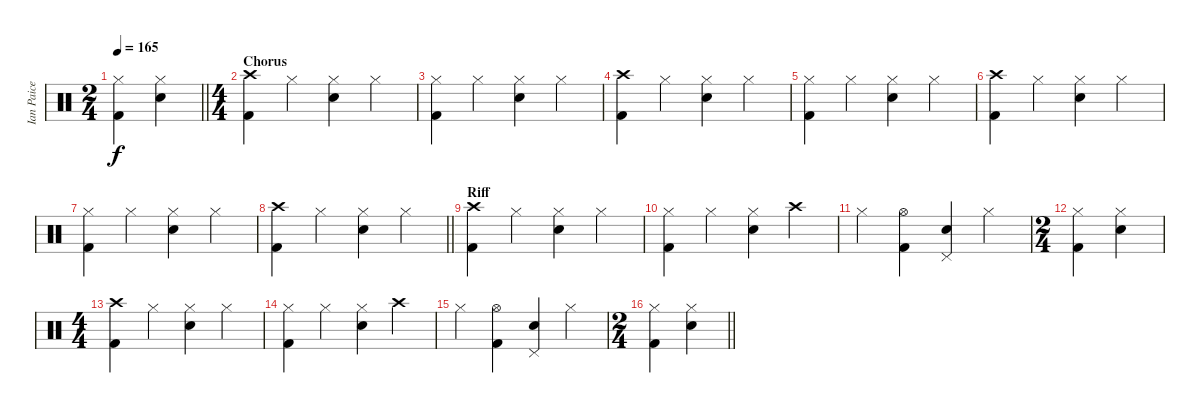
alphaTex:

\track ("Ian Paice" "Ian Paice") {instrument percussion}
\staff {score}
\articulation defaults
\ts (2 4)
\tempo 165
\clef neutral
\barLineRight lightlight
\ks c
("Hi-Hat (closed)" "Kick (hit) 2").4{dy f} ("Hi-Hat (closed)" "Snare (hit) 2").4 |
\ts (4 4)
\section ("" "Chorus")
("Crash high (hit)" "Kick (hit) 2").4 "Hi-Hat (closed)".4 ("Hi-Hat (closed)" "Snare (hit) 2").4 "Hi-Hat (closed)".4 |
("Hi-Hat (closed)" "Kick (hit) 2").4 "Hi-Hat (closed)".4 ("Hi-Hat (closed)" "Snare (hit) 2").4 "Hi-Hat (closed)".4 |
("Crash high (hit)" "Kick (hit) 2").4 "Hi-Hat (closed)".4 ("Hi-Hat (closed)" "Snare (hit) 2").4 "Hi-Hat (closed)".4 |
("Hi-Hat (closed)" "Kick (hit) 2").4 "Hi-Hat (closed)".4 ("Hi-Hat (closed)" "Snare (hit) 2").4 "Hi-Hat (closed)".4 |
("Crash high (hit)" "Kick (hit) 2").4 "Hi-Hat (closed)".4 ("Hi-Hat (closed)" "Snare (hit) 2").4 "Hi-Hat (closed)".4 |
("Hi-Hat (closed)" "Kick (hit) 2").4 "Hi-Hat (closed)".4 ("Hi-Hat (closed)" "Snare (hit) 2").4 "Hi-Hat (closed)".4 |
\barLineRight lightlight
("Crash high (hit)" "Kick (hit) 2").4 "Hi-Hat (closed)".4 ("Hi-Hat (closed)" "Snare (hit) 2").4 "Hi-Hat (closed)".4 |
\section ("" "Riff")
("Crash high (hit)" "Kick (hit) 2").4 "Hi-Hat (closed)".4 ("Hi-Hat (closed)" "Snare (hit) 2").4 "Hi-Hat (closed)".4 |
("Hi-Hat (closed)" "Kick (hit) 2").4 "Hi-Hat (closed)".4 ("Hi-Hat (closed)" "Snare (hit) 2").4 "Crash high (hit)".4 |
"Hi-Hat (closed)".4 ("Hi-Hat (open)" "Kick (hit) 2").4 ("Pedal Hi-Hat (hit)" "Snare (hit) 2").4 "Hi-Hat (closed)".4 |
\ts (2 4)
("Hi-Hat (closed)" "Kick (hit) 2").4 ("Hi-Hat (closed)" "Snare (hit) 2").4 |
\ts (4 4)
("Crash high (hit)" "Kick (hit) 2").4 "Hi-Hat (closed)".4 ("Hi-Hat (closed)" "Snare (hit) 2").4 "Hi-Hat (closed)".4 |
("Hi-Hat (closed)" "Kick (hit) 2").4 "Hi-Hat (closed)".4 ("Hi-Hat (closed)" "Snare (hit) 2").4 "Crash high (hit)".4 |
"Hi-Hat (closed)".4 ("Hi-Hat (open)" "Kick (hit) 2").4 ("Pedal Hi-Hat (hit)" "Snare (hit) 2").4 "Hi-Hat (closed)".4 |
\ts (2 4)
\barLineRight lightlight
("Hi-Hat (closed)" "Kick (hit) 2").4 ("Hi-Hat (closed)" "Snare (hit) 2").4
